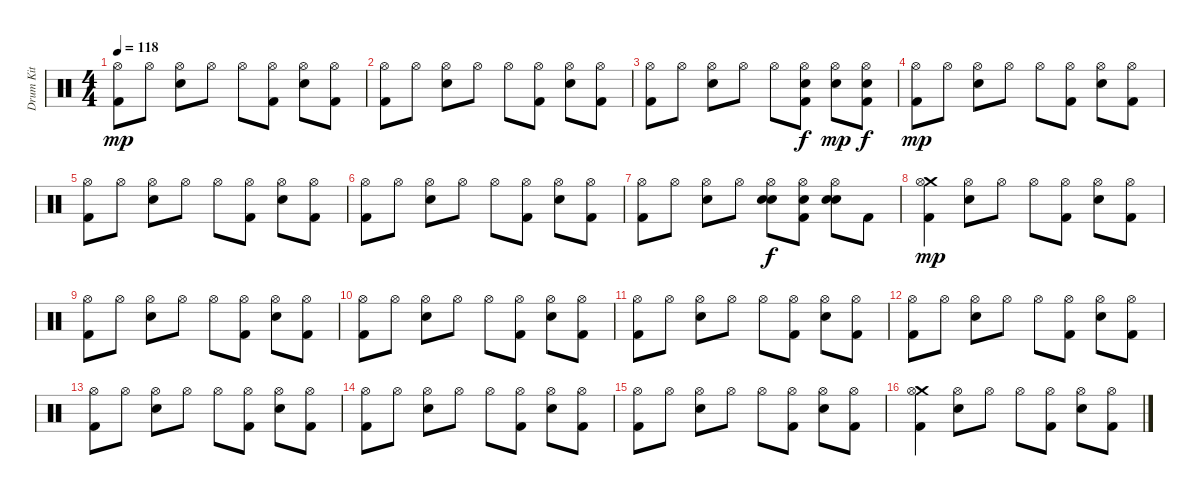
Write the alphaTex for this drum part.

\track ("Drum Kit" "Drum Kit") {instrument percussion}
\staff {score}
\articulation defaults
\ts (4 4)
\tempo 118
\clef neutral
\ks c
("Hi-Hat (open)" "Kick (hit) 2").8{dy mp} "Hi-Hat (open)".8 ("Hi-Hat (open)" "Electric Snare (hit)").8 "Hi-Hat (open)".8 "Hi-Hat (open)".8 ("Hi-Hat (open)" "Kick (hit) 2").8 ("Hi-Hat (open)" "Electric Snare (hit)").8 ("Hi-Hat (open)" "Kick (hit) 2").8 |
("Hi-Hat (open)" "Kick (hit) 2").8 "Hi-Hat (open)".8 ("Hi-Hat (open)" "Electric Snare (hit)").8 "Hi-Hat (open)".8 "Hi-Hat (open)".8 ("Hi-Hat (open)" "Kick (hit) 2").8 ("Hi-Hat (open)" "Electric Snare (hit)").8 ("Hi-Hat (open)" "Kick (hit) 2").8 |
("Hi-Hat (open)" "Kick (hit) 2").8 "Hi-Hat (open)".8 ("Hi-Hat (open)" "Electric Snare (hit)").8 "Hi-Hat (open)".8 "Hi-Hat (open)".8 ("Snare (hit)"{x} "Hi-Hat (open)" "Kick (hit) 2").8{dy f} ("Hi-Hat (open)" "Electric Snare (hit)").8{dy mp} ("Snare (hit)"{x} "Hi-Hat (open)" "Kick (hit) 2").8{dy f} |
("Hi-Hat (open)" "Kick (hit) 2").8{dy mp} "Hi-Hat (open)".8 ("Hi-Hat (open)" "Electric Snare (hit)").8 "Hi-Hat (open)".8 "Hi-Hat (open)".8 ("Hi-Hat (open)" "Kick (hit) 2").8 ("Hi-Hat (open)" "Electric Snare (hit)").8 ("Hi-Hat (open)" "Kick (hit) 2").8 |
("Hi-Hat (open)" "Kick (hit) 2").8 "Hi-Hat (open)".8 ("Hi-Hat (open)" "Electric Snare (hit)").8 "Hi-Hat (open)".8 "Hi-Hat (open)".8 ("Hi-Hat (open)" "Kick (hit) 2").8 ("Hi-Hat (open)" "Electric Snare (hit)").8 ("Hi-Hat (open)" "Kick (hit) 2").8 |
("Hi-Hat (open)" "Kick (hit) 2").8 "Hi-Hat (open)".8 ("Hi-Hat (open)" "Electric Snare (hit)").8 "Hi-Hat (open)".8 "Hi-Hat (open)".8 ("Hi-Hat (open)" "Kick (hit) 2").8 ("Hi-Hat (open)" "Electric Snare (hit)").8 ("Hi-Hat (open)" "Kick (hit) 2").8 |
("Hi-Hat (open)" "Kick (hit) 2").8 "Hi-Hat (open)".8 ("Hi-Hat (open)" "Electric Snare (hit)").8 "Hi-Hat (open)".8 ("Snare (hit)"{x} "Hi-Hat (open)" "Electric Snare (hit)").8{dy f} ("Snare (hit)"{x} "Hi-Hat (open)" "Kick (hit) 2").8 ("Snare (hit)"{x} "Hi-Hat (open)" "Electric Snare (hit)").8 "Kick (hit) 2".8 |
("Crash medium (hit)" "Hi-Hat (open)" "Kick (hit) 2").4{dy mp} ("Hi-Hat (open)" "Electric Snare (hit)").8 "Hi-Hat (open)".8 "Hi-Hat (open)".8 ("Hi-Hat (open)" "Kick (hit) 2").8 ("Hi-Hat (open)" "Electric Snare (hit)").8 ("Hi-Hat (open)" "Kick (hit) 2").8 |
("Hi-Hat (open)" "Kick (hit) 2").8 "Hi-Hat (open)".8 ("Hi-Hat (open)" "Electric Snare (hit)").8 "Hi-Hat (open)".8 "Hi-Hat (open)".8 ("Hi-Hat (open)" "Kick (hit) 2").8 ("Hi-Hat (open)" "Electric Snare (hit)").8 ("Hi-Hat (open)" "Kick (hit) 2").8 |
("Hi-Hat (open)" "Kick (hit) 2").8 "Hi-Hat (open)".8 ("Hi-Hat (open)" "Electric Snare (hit)").8 "Hi-Hat (open)".8 "Hi-Hat (open)".8 ("Hi-Hat (open)" "Kick (hit) 2").8 ("Hi-Hat (open)" "Electric Snare (hit)").8 ("Hi-Hat (open)" "Kick (hit) 2").8 |
("Hi-Hat (open)" "Kick (hit) 2").8 "Hi-Hat (open)".8 ("Hi-Hat (open)" "Electric Snare (hit)").8 "Hi-Hat (open)".8 "Hi-Hat (open)".8 ("Hi-Hat (open)" "Kick (hit) 2").8 ("Hi-Hat (open)" "Electric Snare (hit)").8 ("Hi-Hat (open)" "Kick (hit) 2").8 |
("Hi-Hat (open)" "Kick (hit) 2").8 "Hi-Hat (open)".8 ("Hi-Hat (open)" "Electric Snare (hit)").8 "Hi-Hat (open)".8 "Hi-Hat (open)".8 ("Hi-Hat (open)" "Kick (hit) 2").8 ("Hi-Hat (open)" "Electric Snare (hit)").8 ("Hi-Hat (open)" "Kick (hit) 2").8 |
("Hi-Hat (open)" "Kick (hit) 2").8 "Hi-Hat (open)".8 ("Hi-Hat (open)" "Electric Snare (hit)").8 "Hi-Hat (open)".8 "Hi-Hat (open)".8 ("Hi-Hat (open)" "Kick (hit) 2").8 ("Hi-Hat (open)" "Electric Snare (hit)").8 ("Hi-Hat (open)" "Kick (hit) 2").8 |
("Hi-Hat (open)" "Kick (hit) 2").8 "Hi-Hat (open)".8 ("Hi-Hat (open)" "Electric Snare (hit)").8 "Hi-Hat (open)".8 "Hi-Hat (open)".8 ("Hi-Hat (open)" "Kick (hit) 2").8 ("Hi-Hat (open)" "Electric Snare (hit)").8 ("Hi-Hat (open)" "Kick (hit) 2").8 |
("Hi-Hat (open)" "Kick (hit) 2").8 "Hi-Hat (open)".8 ("Hi-Hat (open)" "Electric Snare (hit)").8 "Hi-Hat (open)".8 "Hi-Hat (open)".8 ("Hi-Hat (open)" "Kick (hit) 2").8 ("Hi-Hat (open)" "Electric Snare (hit)").8 ("Hi-Hat (open)" "Kick (hit) 2").8 |
("Crash medium (hit)" "Hi-Hat (open)" "Kick (hit) 2").4 ("Hi-Hat (open)" "Electric Snare (hit)").8 "Hi-Hat (open)".8 "Hi-Hat (open)".8 ("Hi-Hat (open)" "Kick (hit) 2").8 ("Hi-Hat (open)" "Electric Snare (hit)").8 ("Hi-Hat (open)" "Kick (hit) 2").8
